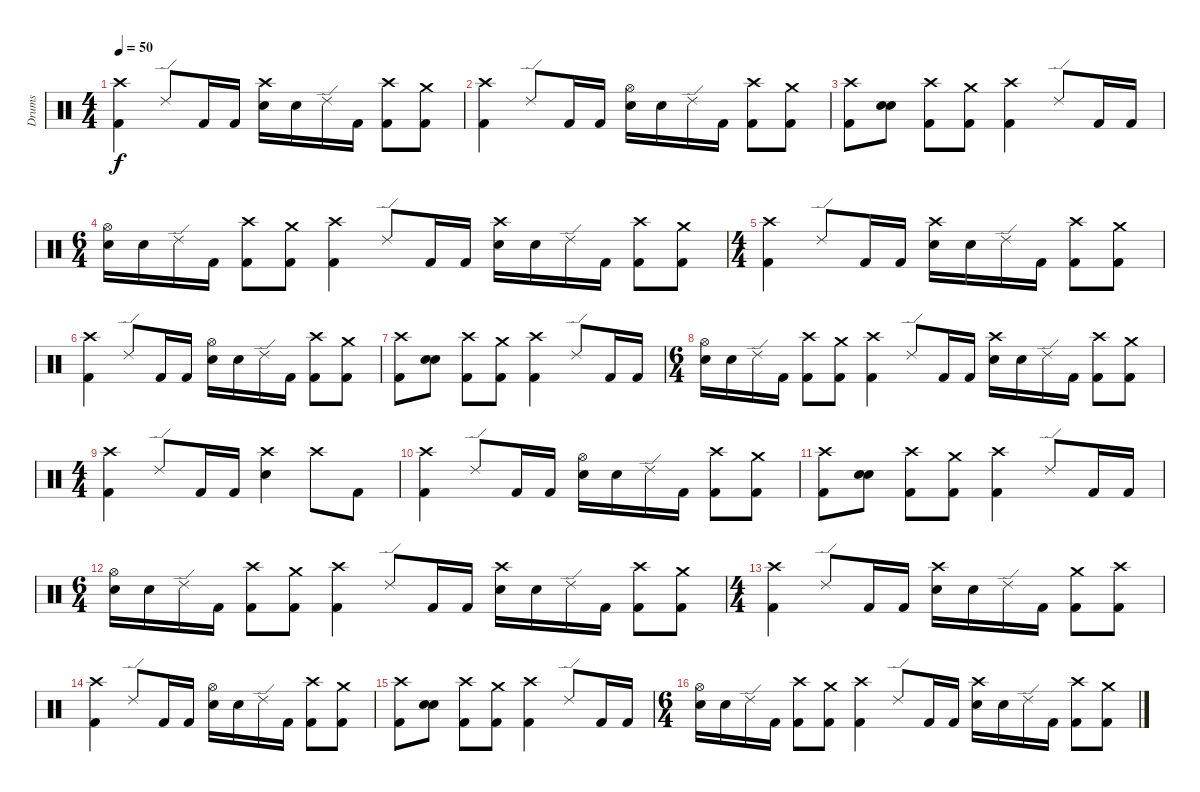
\track ("Drums" "Drums") {instrument percussion}
\staff {score}
\articulation defaults
\ts (4 4)
\tempo 50
\clef neutral
\ks c
("Crash high (hit)" "Kick (hit) 2").4{dy f} "Ride (edge) 2".8 "Kick (hit) 2".16 "Kick (hit) 2".16 ("Crash high (hit)" "Electric Snare (hit)").16 "Electric Snare (hit)".16 "Ride (edge) 2".16 "Kick (hit) 2".16 ("Crash high (hit)" "Kick (hit) 2").8 ("Crash medium (hit)" "Kick (hit) 2").8 |
("Crash high (hit)" "Kick (hit) 2").4 "Ride (edge) 2".8 "Kick (hit) 2".16 "Kick (hit) 2".16 ("Hi-Hat (open)" "Electric Snare (hit)").16 "Electric Snare (hit)".16 "Ride (edge) 2".16 "Kick (hit) 2".16 ("Crash high (hit)" "Kick (hit) 2").8 ("Crash medium (hit)" "Kick (hit) 2").8 |
("Crash high (hit)" "Kick (hit) 2").8 ("Electric Snare (hit)" "Electric Snare (hit)").8{bu 60} ("Crash high (hit)" "Kick (hit) 2").8 ("Crash medium (hit)" "Kick (hit) 2").8 ("Crash high (hit)" "Kick (hit) 2").4 "Ride (edge) 2".8 "Kick (hit) 2".16 "Kick (hit) 2".16 |
\ts (6 4)
("Hi-Hat (open)" "Electric Snare (hit)").16 "Electric Snare (hit)".16 "Ride (edge) 2".16 "Kick (hit) 2".16 ("Crash high (hit)" "Kick (hit) 2").8 ("Crash medium (hit)" "Kick (hit) 2").8 ("Crash high (hit)" "Kick (hit) 2").4 "Ride (edge) 2".8 "Kick (hit) 2".16 "Kick (hit) 2".16 ("Crash high (hit)" "Electric Snare (hit)").16 "Electric Snare (hit)".16 "Ride (edge) 2".16 "Kick (hit) 2".16 ("Crash high (hit)" "Kick (hit) 2").8 ("Crash medium (hit)" "Kick (hit) 2").8 |
\ts (4 4)
("Crash high (hit)" "Kick (hit) 2").4 "Ride (edge) 2".8 "Kick (hit) 2".16 "Kick (hit) 2".16 ("Crash high (hit)" "Electric Snare (hit)").16 "Electric Snare (hit)".16 "Ride (edge) 2".16 "Kick (hit) 2".16 ("Crash high (hit)" "Kick (hit) 2").8 ("Crash medium (hit)" "Kick (hit) 2").8 |
("Crash high (hit)" "Kick (hit) 2").4 "Ride (edge) 2".8 "Kick (hit) 2".16 "Kick (hit) 2".16 ("Hi-Hat (open)" "Electric Snare (hit)").16 "Electric Snare (hit)".16 "Ride (edge) 2".16 "Kick (hit) 2".16 ("Crash high (hit)" "Kick (hit) 2").8 ("Crash medium (hit)" "Kick (hit) 2").8 |
("Crash high (hit)" "Kick (hit) 2").8 ("Electric Snare (hit)" "Electric Snare (hit)").8{bu 60} ("Crash high (hit)" "Kick (hit) 2").8 ("Crash medium (hit)" "Kick (hit) 2").8 ("Crash high (hit)" "Kick (hit) 2").4 "Ride (edge) 2".8 "Kick (hit) 2".16 "Kick (hit) 2".16 |
\ts (6 4)
("Hi-Hat (open)" "Electric Snare (hit)").16 "Electric Snare (hit)".16 "Ride (edge) 2".16 "Kick (hit) 2".16 ("Crash high (hit)" "Kick (hit) 2").8 ("Crash medium (hit)" "Kick (hit) 2").8 ("Crash high (hit)" "Kick (hit) 2").4 "Ride (edge) 2".8 "Kick (hit) 2".16 "Kick (hit) 2".16 ("Crash high (hit)" "Electric Snare (hit)").16 "Electric Snare (hit)".16 "Ride (edge) 2".16 "Kick (hit) 2".16 ("Crash high (hit)" "Kick (hit) 2").8 ("Crash medium (hit)" "Kick (hit) 2").8 |
\ts (4 4)
("Crash high (hit)" "Kick (hit) 2").4 "Ride (edge) 2".8 "Kick (hit) 2".16 "Kick (hit) 2".16 ("Crash high (hit)" "Electric Snare (hit)").4 "Crash high (hit)".8 "Kick (hit) 2".8 |
("Crash high (hit)" "Kick (hit) 2").4 "Ride (edge) 2".8 "Kick (hit) 2".16 "Kick (hit) 2".16 ("Hi-Hat (open)" "Electric Snare (hit)").16 "Electric Snare (hit)".16 "Ride (edge) 2".16 "Kick (hit) 2".16 ("Crash high (hit)" "Kick (hit) 2").8 ("Crash medium (hit)" "Kick (hit) 2").8 |
("Crash high (hit)" "Kick (hit) 2").8 ("Electric Snare (hit)" "Electric Snare (hit)").8{bu 60} ("Crash high (hit)" "Kick (hit) 2").8 ("Crash medium (hit)" "Kick (hit) 2").8 ("Crash high (hit)" "Kick (hit) 2").4 "Ride (edge) 2".8 "Kick (hit) 2".16 "Kick (hit) 2".16 |
\ts (6 4)
("Hi-Hat (open)" "Electric Snare (hit)").16 "Electric Snare (hit)".16 "Ride (edge) 2".16 "Kick (hit) 2".16 ("Crash high (hit)" "Kick (hit) 2").8 ("Crash medium (hit)" "Kick (hit) 2").8 ("Crash high (hit)" "Kick (hit) 2").4 "Ride (edge) 2".8 "Kick (hit) 2".16 "Kick (hit) 2".16 ("Crash high (hit)" "Electric Snare (hit)").16 "Electric Snare (hit)".16 "Ride (edge) 2".16 "Kick (hit) 2".16 ("Crash high (hit)" "Kick (hit) 2").8 ("Crash medium (hit)" "Kick (hit) 2").8 |
\ts (4 4)
("Crash high (hit)" "Kick (hit) 2").4{volume 0} "Ride (edge) 2".8 "Kick (hit) 2".16 "Kick (hit) 2".16 ("Crash high (hit)" "Electric Snare (hit)").16 "Electric Snare (hit)".16 "Ride (edge) 2".16 "Kick (hit) 2".16 ("Crash medium (hit)" "Kick (hit) 2").8 ("Crash high (hit)" "Kick (hit) 2").8 |
("Crash high (hit)" "Kick (hit) 2").4 "Ride (edge) 2".8 "Kick (hit) 2".16 "Kick (hit) 2".16 ("Hi-Hat (open)" "Electric Snare (hit)").16 "Electric Snare (hit)".16 "Ride (edge) 2".16 "Kick (hit) 2".16 ("Crash high (hit)" "Kick (hit) 2").8 ("Crash medium (hit)" "Kick (hit) 2").8 |
("Crash high (hit)" "Kick (hit) 2").8 ("Electric Snare (hit)" "Electric Snare (hit)").8{bu 60} ("Crash high (hit)" "Kick (hit) 2").8 ("Crash medium (hit)" "Kick (hit) 2").8 ("Crash high (hit)" "Kick (hit) 2").4 "Ride (edge) 2".8 "Kick (hit) 2".16 "Kick (hit) 2".16 |
\ts (6 4)
("Hi-Hat (open)" "Electric Snare (hit)").16 "Electric Snare (hit)".16 "Ride (edge) 2".16 "Kick (hit) 2".16 ("Crash high (hit)" "Kick (hit) 2").8 ("Crash medium (hit)" "Kick (hit) 2").8 ("Crash high (hit)" "Kick (hit) 2").4 "Ride (edge) 2".8 "Kick (hit) 2".16 "Kick (hit) 2".16 ("Crash high (hit)" "Electric Snare (hit)").16 "Electric Snare (hit)".16 "Ride (edge) 2".16 "Kick (hit) 2".16 ("Crash high (hit)" "Kick (hit) 2").8 ("Crash medium (hit)" "Kick (hit) 2").8
